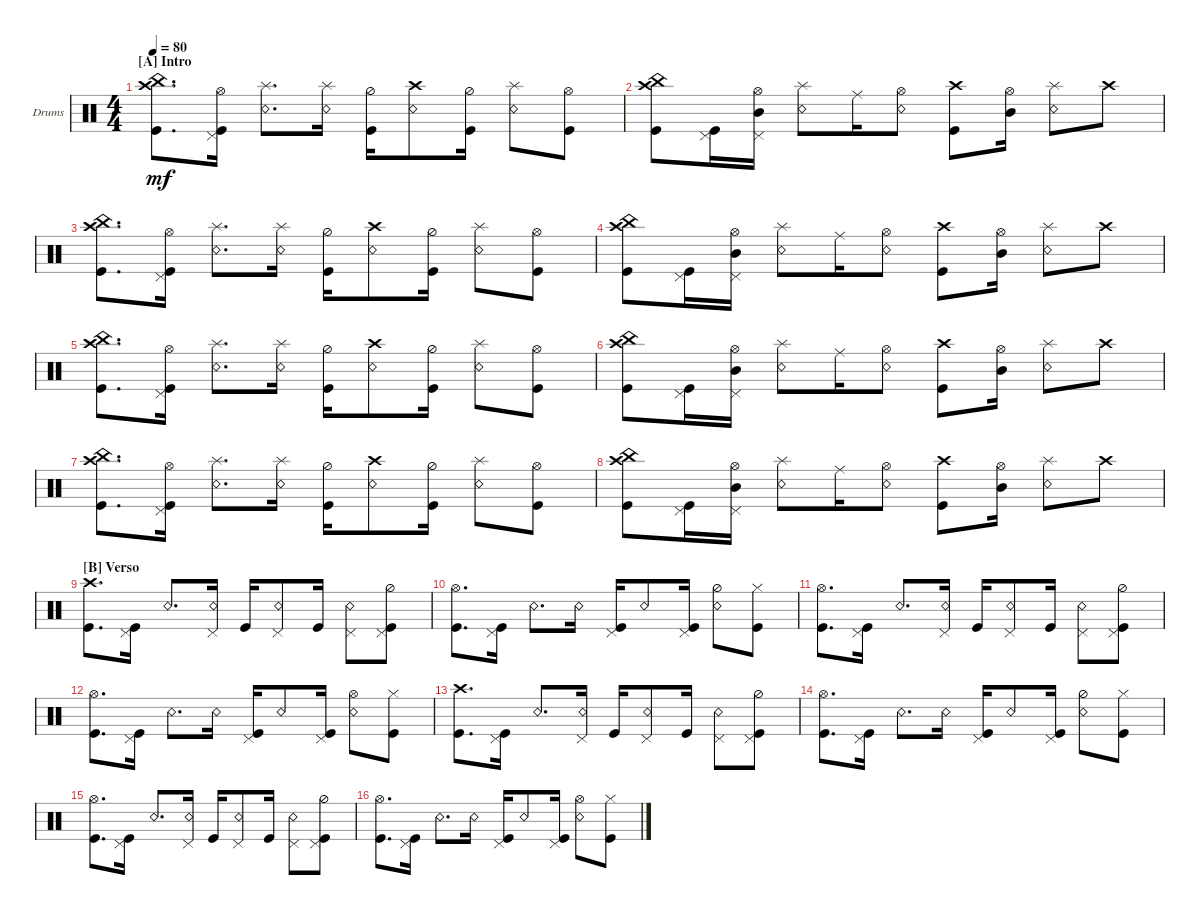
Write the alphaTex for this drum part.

\defaultSystemsLayout 4
\bracketExtendMode groupsimilarinstruments
\firstSystemTrackNameOrientation horizontal
\otherSystemsTrackNameOrientation horizontal
\track ("Bateria" "Drums") {multiBarRest instrument percussion}
\staff {score}
\articulation defaults
\ts (4 4)
\section ("A" "Intro")
\tempo 80
\clef neutral
\ks c
("Kick (hit)" "China (hit)" "Crash high (hit)").8{d dy mf} ("Kick (hit)" "Pedal Hi-Hat (hit)" "Hi-Hat (open)").16 ("Snare (rim shot)" "Splash (hit)").8{d} ("Snare (rim shot)" "Splash (hit)").16 ("Kick (hit)" "Hi-Hat (half)").16 ("Snare (rim shot)" "Crash high (hit)").8 ("Kick (hit)" "Hi-Hat (half)").16 ("Snare (rim shot)" "Splash (hit)").8 ("Kick (hit)" "Hi-Hat (open)").8 |
("Kick (hit)" "China (hit)" "Crash high (hit)").8 ("Kick (hit)" "Pedal Hi-Hat (hit)").16 ("Pedal Hi-Hat (hit)" "Mid Tom (hit)" "Hi-Hat (open)").16 ("Snare (rim shot)" "Splash (hit)").8 "Ride (middle)".16 ("Snare (rim shot)" "Hi-Hat (open)").8 ("Kick (hit)" "Crash high (hit)").8 ("Hi-Hat (open)" "Mid Tom (hit)").16 ("Snare (rim shot)" "Splash (hit)").8 "Crash high (hit)".8 |
("Kick (hit)" "China (hit)" "Crash high (hit)").8{d} ("Kick (hit)" "Pedal Hi-Hat (hit)" "Hi-Hat (open)").16 ("Snare (rim shot)" "Splash (hit)").8{d} ("Snare (rim shot)" "Splash (hit)").16 ("Kick (hit)" "Hi-Hat (half)").16 ("Snare (rim shot)" "Crash high (hit)").8 ("Kick (hit)" "Hi-Hat (half)").16 ("Snare (rim shot)" "Splash (hit)").8 ("Kick (hit)" "Hi-Hat (open)").8 |
("Kick (hit)" "China (hit)" "Crash high (hit)").8 ("Kick (hit)" "Pedal Hi-Hat (hit)").16 ("Pedal Hi-Hat (hit)" "Mid Tom (hit)" "Hi-Hat (open)").16 ("Snare (rim shot)" "Splash (hit)").8 "Ride (middle)".16 ("Snare (rim shot)" "Hi-Hat (open)").8 ("Kick (hit)" "Crash high (hit)").8 ("Hi-Hat (open)" "Mid Tom (hit)").16 ("Snare (rim shot)" "Splash (hit)").8 "Crash high (hit)".8 |
("Kick (hit)" "China (hit)" "Crash high (hit)").8{d} ("Kick (hit)" "Pedal Hi-Hat (hit)" "Hi-Hat (open)").16 ("Snare (rim shot)" "Splash (hit)").8{d} ("Snare (rim shot)" "Splash (hit)").16 ("Kick (hit)" "Hi-Hat (half)").16 ("Snare (rim shot)" "Crash high (hit)").8 ("Kick (hit)" "Hi-Hat (half)").16 ("Snare (rim shot)" "Splash (hit)").8 ("Kick (hit)" "Hi-Hat (open)").8 |
("Kick (hit)" "China (hit)" "Crash high (hit)").8 ("Kick (hit)" "Pedal Hi-Hat (hit)").16 ("Pedal Hi-Hat (hit)" "Mid Tom (hit)" "Hi-Hat (open)").16 ("Snare (rim shot)" "Splash (hit)").8 "Ride (middle)".16 ("Snare (rim shot)" "Hi-Hat (open)").8 ("Kick (hit)" "Crash high (hit)").8 ("Hi-Hat (open)" "Mid Tom (hit)").16 ("Snare (rim shot)" "Splash (hit)").8 "Crash high (hit)".8 |
("Kick (hit)" "China (hit)" "Crash high (hit)").8{d} ("Kick (hit)" "Pedal Hi-Hat (hit)" "Hi-Hat (open)").16 ("Snare (rim shot)" "Splash (hit)").8{d} ("Snare (rim shot)" "Splash (hit)").16 ("Kick (hit)" "Hi-Hat (half)").16 ("Snare (rim shot)" "Crash high (hit)").8 ("Kick (hit)" "Hi-Hat (half)").16 ("Snare (rim shot)" "Splash (hit)").8 ("Kick (hit)" "Hi-Hat (open)").8 |
("Kick (hit)" "China (hit)" "Crash high (hit)").8 ("Kick (hit)" "Pedal Hi-Hat (hit)").16 ("Pedal Hi-Hat (hit)" "Mid Tom (hit)" "Hi-Hat (open)").16 ("Snare (rim shot)" "Splash (hit)").8 "Ride (middle)".16 ("Snare (rim shot)" "Hi-Hat (open)").8 ("Kick (hit)" "Crash high (hit)").8 ("Hi-Hat (open)" "Mid Tom (hit)").16 ("Snare (rim shot)" "Splash (hit)").8 "Crash high (hit)".8 |
\section ("B" "Verso")
("Kick (hit)" "Crash high (hit)").8{d} ("Kick (hit)" "Pedal Hi-Hat (hit)").16 "Snare (rim shot)".8{d} ("Snare (rim shot)" "Pedal Hi-Hat (hit)").16 "Kick (hit)".16 ("Snare (rim shot)" "Pedal Hi-Hat (hit)").8 "Kick (hit)".16 ("Snare (rim shot)" "Pedal Hi-Hat (hit)").8 ("Kick (hit)" "Hi-Hat (half)" "Pedal Hi-Hat (hit)").8 |
("Kick (hit)" "Hi-Hat (open)").8{d} ("Kick (hit)" "Pedal Hi-Hat (hit)").16 "Snare (rim shot)".8{d} "Snare (rim shot)".16 ("Kick (hit)" "Pedal Hi-Hat (hit)").16 "Snare (rim shot)".8 ("Kick (hit)" "Pedal Hi-Hat (hit)").16 ("Snare (rim shot)" "Hi-Hat (half)").8 ("Kick (hit)" "Hi-Hat (closed)").8 |
("Kick (hit)" "Hi-Hat (open)").8{d} ("Kick (hit)" "Pedal Hi-Hat (hit)").16 "Snare (rim shot)".8{d} ("Snare (rim shot)" "Pedal Hi-Hat (hit)").16 "Kick (hit)".16 ("Snare (rim shot)" "Pedal Hi-Hat (hit)").8 "Kick (hit)".16 ("Snare (rim shot)" "Pedal Hi-Hat (hit)").8 ("Kick (hit)" "Hi-Hat (half)" "Pedal Hi-Hat (hit)").8 |
("Kick (hit)" "Hi-Hat (open)").8{d} ("Kick (hit)" "Pedal Hi-Hat (hit)").16 "Snare (rim shot)".8{d} "Snare (rim shot)".16 ("Kick (hit)" "Pedal Hi-Hat (hit)").16 "Snare (rim shot)".8 ("Kick (hit)" "Pedal Hi-Hat (hit)").16 ("Snare (rim shot)" "Hi-Hat (open)").8 ("Kick (hit)" "Hi-Hat (closed)").8 |
("Kick (hit)" "Crash high (hit)").8{d} ("Kick (hit)" "Pedal Hi-Hat (hit)").16 "Snare (rim shot)".8{d} ("Snare (rim shot)" "Pedal Hi-Hat (hit)").16 "Kick (hit)".16 ("Snare (rim shot)" "Pedal Hi-Hat (hit)").8 "Kick (hit)".16 ("Snare (rim shot)" "Pedal Hi-Hat (hit)").8 ("Kick (hit)" "Hi-Hat (half)" "Pedal Hi-Hat (hit)").8 |
("Kick (hit)" "Hi-Hat (open)").8{d} ("Kick (hit)" "Pedal Hi-Hat (hit)").16 "Snare (rim shot)".8{d} "Snare (rim shot)".16 ("Kick (hit)" "Pedal Hi-Hat (hit)").16 "Snare (rim shot)".8 ("Kick (hit)" "Pedal Hi-Hat (hit)").16 ("Snare (rim shot)" "Hi-Hat (half)").8 ("Kick (hit)" "Hi-Hat (closed)").8 |
("Kick (hit)" "Hi-Hat (open)").8{d} ("Kick (hit)" "Pedal Hi-Hat (hit)").16 "Snare (rim shot)".8{d} ("Snare (rim shot)" "Pedal Hi-Hat (hit)").16 "Kick (hit)".16 ("Snare (rim shot)" "Pedal Hi-Hat (hit)").8 "Kick (hit)".16 ("Snare (rim shot)" "Pedal Hi-Hat (hit)").8 ("Kick (hit)" "Hi-Hat (half)" "Pedal Hi-Hat (hit)").8 |
("Kick (hit)" "Hi-Hat (open)").8{d} ("Kick (hit)" "Pedal Hi-Hat (hit)").16 "Snare (rim shot)".8{d} "Snare (rim shot)".16 ("Kick (hit)" "Pedal Hi-Hat (hit)").16 "Snare (rim shot)".8 ("Kick (hit)" "Pedal Hi-Hat (hit)").16 ("Snare (rim shot)" "Hi-Hat (open)").8 ("Kick (hit)" "Hi-Hat (closed)").8
